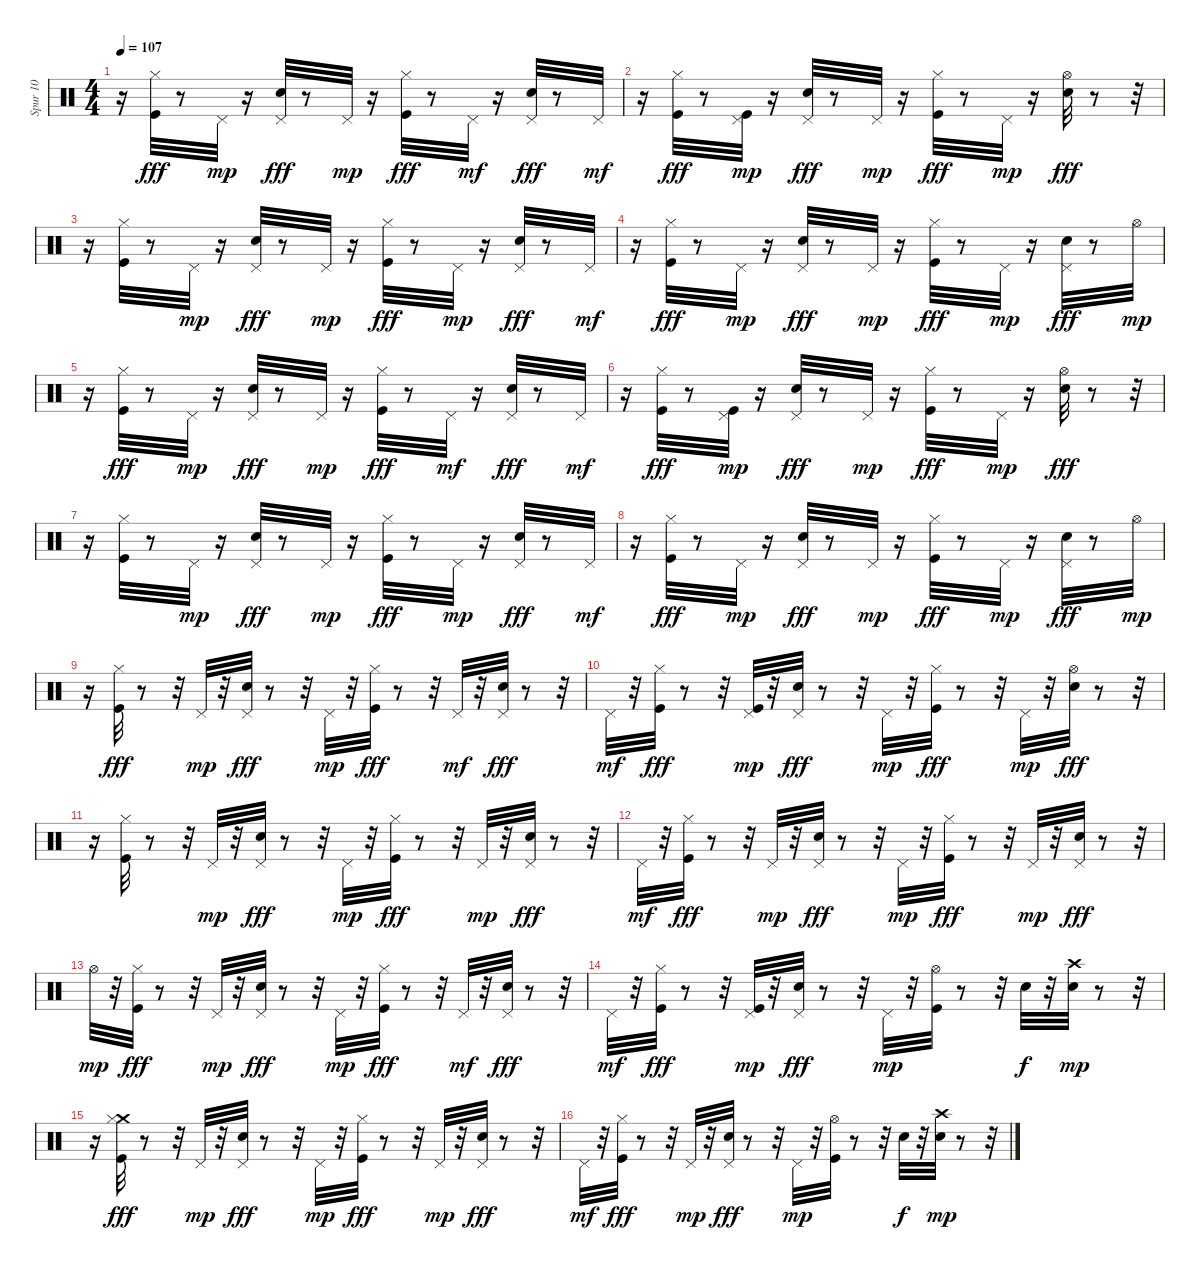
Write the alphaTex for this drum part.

\track ("Spur 10" "Spur 10") {instrument percussion}
\staff {score}
\articulation defaults
\ts (4 4)
\tempo 107
\clef neutral
\ks c
r.16{dy mp} ("Hi-Hat (closed)" "Kick (hit)").32{dy fff} r.8 "Pedal Hi-Hat (hit)".32{dy mp} r.16 ("Pedal Hi-Hat (hit)" "Snare (hit) 2").32{dy fff} r.8 "Pedal Hi-Hat (hit)".32{dy mp} r.16 ("Hi-Hat (closed)" "Kick (hit)").32{dy fff} r.8 "Pedal Hi-Hat (hit)".32{dy mf} r.16 ("Pedal Hi-Hat (hit)" "Snare (hit) 2").32{dy fff} r.8 "Pedal Hi-Hat (hit)".32{dy mf} |
r.16 ("Hi-Hat (closed)" "Kick (hit)").32{dy fff} r.8 ("Pedal Hi-Hat (hit)" "Kick (hit)").32{dy mp} r.16 ("Pedal Hi-Hat (hit)" "Snare (hit) 2").32{dy fff} r.8 "Pedal Hi-Hat (hit)".32{dy mp} r.16 ("Hi-Hat (closed)" "Kick (hit)").32{dy fff} r.8 "Pedal Hi-Hat (hit)".32{dy mp} r.16 ("Hi-Hat (open)" "Snare (hit) 2").32{dy fff} r.8 r.32 |
r.16 ("Hi-Hat (closed)" "Kick (hit)").32 r.8 "Pedal Hi-Hat (hit)".32{dy mp} r.16 ("Pedal Hi-Hat (hit)" "Snare (hit) 2").32{dy fff} r.8 "Pedal Hi-Hat (hit)".32{dy mp} r.16 ("Hi-Hat (closed)" "Kick (hit)").32{dy fff} r.8 "Pedal Hi-Hat (hit)".32{dy mp} r.16 ("Pedal Hi-Hat (hit)" "Snare (hit) 2").32{dy fff} r.8 "Pedal Hi-Hat (hit)".32{dy mf} |
r.16 ("Hi-Hat (closed)" "Kick (hit)").32{dy fff} r.8 "Pedal Hi-Hat (hit)".32{dy mp} r.16 ("Pedal Hi-Hat (hit)" "Snare (hit) 2").32{dy fff} r.8 "Pedal Hi-Hat (hit)".32{dy mp} r.16 ("Hi-Hat (closed)" "Kick (hit)").32{dy fff} r.8 "Pedal Hi-Hat (hit)".32{dy mp} r.16 ("Pedal Hi-Hat (hit)" "Snare (hit) 2").32{dy fff} r.8 "Hi-Hat (open)".32{dy mp} |
r.16 ("Hi-Hat (closed)" "Kick (hit)").32{dy fff} r.8 "Pedal Hi-Hat (hit)".32{dy mp} r.16 ("Pedal Hi-Hat (hit)" "Snare (hit) 2").32{dy fff} r.8 "Pedal Hi-Hat (hit)".32{dy mp} r.16 ("Hi-Hat (closed)" "Kick (hit)").32{dy fff} r.8 "Pedal Hi-Hat (hit)".32{dy mf} r.16 ("Pedal Hi-Hat (hit)" "Snare (hit) 2").32{dy fff} r.8 "Pedal Hi-Hat (hit)".32{dy mf} |
r.16 ("Hi-Hat (closed)" "Kick (hit)").32{dy fff} r.8 ("Pedal Hi-Hat (hit)" "Kick (hit)").32{dy mp} r.16 ("Pedal Hi-Hat (hit)" "Snare (hit) 2").32{dy fff} r.8 "Pedal Hi-Hat (hit)".32{dy mp} r.16 ("Hi-Hat (closed)" "Kick (hit)").32{dy fff} r.8 "Pedal Hi-Hat (hit)".32{dy mp} r.16 ("Hi-Hat (open)" "Snare (hit) 2").32{dy fff} r.8 r.32 |
r.16 ("Hi-Hat (closed)" "Kick (hit)").32 r.8 "Pedal Hi-Hat (hit)".32{dy mp} r.16 ("Pedal Hi-Hat (hit)" "Snare (hit) 2").32{dy fff} r.8 "Pedal Hi-Hat (hit)".32{dy mp} r.16 ("Hi-Hat (closed)" "Kick (hit)").32{dy fff} r.8 "Pedal Hi-Hat (hit)".32{dy mp} r.16 ("Pedal Hi-Hat (hit)" "Snare (hit) 2").32{dy fff} r.8 "Pedal Hi-Hat (hit)".32{dy mf} |
r.16 ("Hi-Hat (closed)" "Kick (hit)").32{dy fff} r.8 "Pedal Hi-Hat (hit)".32{dy mp} r.16 ("Pedal Hi-Hat (hit)" "Snare (hit) 2").32{dy fff} r.8 "Pedal Hi-Hat (hit)".32{dy mp} r.16 ("Hi-Hat (closed)" "Kick (hit)").32{dy fff} r.8 "Pedal Hi-Hat (hit)".32{dy mp} r.16 ("Pedal Hi-Hat (hit)" "Snare (hit) 2").32{dy fff} r.8 "Hi-Hat (open)".32{dy mp} |
r.16 ("Hi-Hat (closed)" "Kick (hit)").32{dy fff} r.8 r.32 "Pedal Hi-Hat (hit)".32{dy mp} r.32 ("Pedal Hi-Hat (hit)" "Snare (hit) 2").32{dy fff} r.8 r.32 "Pedal Hi-Hat (hit)".32{dy mp} r.32 ("Hi-Hat (closed)" "Kick (hit)").32{dy fff} r.8 r.32 "Pedal Hi-Hat (hit)".32{dy mf} r.32 ("Pedal Hi-Hat (hit)" "Snare (hit) 2").32{dy fff} r.8 r.32 |
"Pedal Hi-Hat (hit)".32{dy mf} r.32 ("Hi-Hat (closed)" "Kick (hit)").32{dy fff} r.8 r.32 ("Pedal Hi-Hat (hit)" "Kick (hit)").32{dy mp} r.32 ("Pedal Hi-Hat (hit)" "Snare (hit) 2").32{dy fff} r.8 r.32 "Pedal Hi-Hat (hit)".32{dy mp} r.32 ("Hi-Hat (closed)" "Kick (hit)").32{dy fff} r.8 r.32 "Pedal Hi-Hat (hit)".32{dy mp} r.32 ("Hi-Hat (open)" "Snare (hit) 2").32{dy fff} r.8 r.32 |
r.16 ("Hi-Hat (closed)" "Kick (hit)").32 r.8 r.32 "Pedal Hi-Hat (hit)".32{dy mp} r.32 ("Pedal Hi-Hat (hit)" "Snare (hit) 2").32{dy fff} r.8 r.32 "Pedal Hi-Hat (hit)".32{dy mp} r.32 ("Hi-Hat (closed)" "Kick (hit)").32{dy fff} r.8 r.32 "Pedal Hi-Hat (hit)".32{dy mp} r.32 ("Pedal Hi-Hat (hit)" "Snare (hit) 2").32{dy fff} r.8 r.32 |
"Pedal Hi-Hat (hit)".32{dy mf} r.32 ("Hi-Hat (closed)" "Kick (hit)").32{dy fff} r.8 r.32 "Pedal Hi-Hat (hit)".32{dy mp} r.32 ("Pedal Hi-Hat (hit)" "Snare (hit) 2").32{dy fff} r.8 r.32 "Pedal Hi-Hat (hit)".32{dy mp} r.32 ("Hi-Hat (closed)" "Kick (hit)").32{dy fff} r.8 r.32 "Pedal Hi-Hat (hit)".32{dy mp} r.32 ("Pedal Hi-Hat (hit)" "Snare (hit) 2").32{dy fff} r.8 r.32 |
"Hi-Hat (open)".32{dy mp} r.32 ("Hi-Hat (closed)" "Kick (hit)").32{dy fff} r.8 r.32 "Pedal Hi-Hat (hit)".32{dy mp} r.32 ("Pedal Hi-Hat (hit)" "Snare (hit) 2").32{dy fff} r.8 r.32 "Pedal Hi-Hat (hit)".32{dy mp} r.32 ("Hi-Hat (closed)" "Kick (hit)").32{dy fff} r.8 r.32 "Pedal Hi-Hat (hit)".32{dy mf} r.32 ("Pedal Hi-Hat (hit)" "Snare (hit) 2").32{dy fff} r.8 r.32 |
"Pedal Hi-Hat (hit)".32{dy mf} r.32 ("Hi-Hat (closed)" "Kick (hit)").32{dy fff} r.8 r.32 ("Pedal Hi-Hat (hit)" "Kick (hit)").32{dy mp} r.32 ("Pedal Hi-Hat (hit)" "Snare (hit) 2").32{dy fff} r.8 r.32 "Pedal Hi-Hat (hit)".32{dy mp} r.32 ("Kick (hit)" "Hi-Hat (open)").32 r.8 r.32 "Snare (hit) 2".32{dy f} r.32 ("Snare (hit) 2" "Crash high (hit)").32{dy mp} r.8 r.32 |
r.16 ("Crash medium (hit)" "Hi-Hat (closed)" "Kick (hit)").32{dy fff} r.8 r.32 "Pedal Hi-Hat (hit)".32{dy mp} r.32 ("Pedal Hi-Hat (hit)" "Snare (hit) 2").32{dy fff} r.8 r.32 "Pedal Hi-Hat (hit)".32{dy mp} r.32 ("Hi-Hat (closed)" "Kick (hit)").32{dy fff} r.8 r.32 "Pedal Hi-Hat (hit)".32{dy mp} r.32 ("Pedal Hi-Hat (hit)" "Snare (hit) 2").32{dy fff} r.8 r.32 |
"Pedal Hi-Hat (hit)".32{dy mf} r.32 ("Hi-Hat (closed)" "Kick (hit)").32{dy fff} r.8 r.32 "Pedal Hi-Hat (hit)".32{dy mp} r.32 ("Pedal Hi-Hat (hit)" "Snare (hit) 2").32{dy fff} r.8 r.32 "Pedal Hi-Hat (hit)".32{dy mp} r.32 ("Kick (hit)" "Hi-Hat (open)").32 r.8 r.32 "Snare (hit) 2".32{dy f} r.32 ("Snare (hit) 2" "Crash high (hit)").32{dy mp} r.8 r.32
